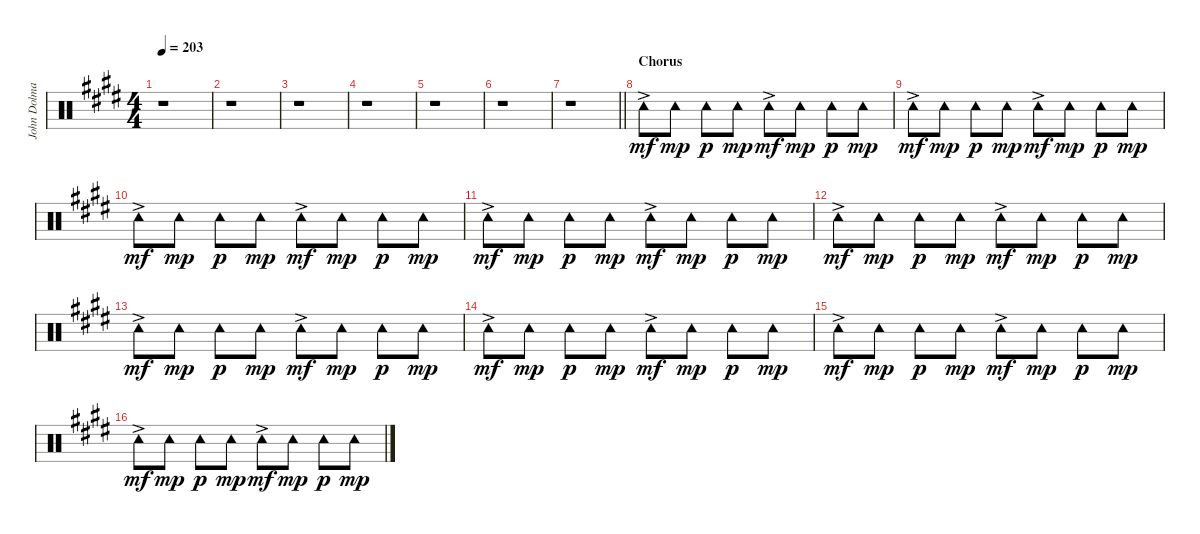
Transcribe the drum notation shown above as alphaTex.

\track ("John Dolmayan [Tambourine]" "John Dolma") {instrument percussion}
\staff {score}
\articulation defaults
\ts (4 4)
\tempo 203
\clef neutral
\ks c#minor
r.1{dy mf} |
r.1 |
r.1 |
r.1 |
r.1 |
r.1 |
\barLineRight lightlight
r.1 |
\section ("" "Chorus")
"Tambourine (hit)"{ac}.8 "Tambourine (hit)".8{dy mp} "Tambourine (hit)".8{dy p} "Tambourine (hit)".8{dy mp} "Tambourine (hit)"{ac}.8{dy mf} "Tambourine (hit)".8{dy mp} "Tambourine (hit)".8{dy p} "Tambourine (hit)".8{dy mp} |
"Tambourine (hit)"{ac}.8{dy mf} "Tambourine (hit)".8{dy mp} "Tambourine (hit)".8{dy p} "Tambourine (hit)".8{dy mp} "Tambourine (hit)"{ac}.8{dy mf} "Tambourine (hit)".8{dy mp} "Tambourine (hit)".8{dy p} "Tambourine (hit)".8{dy mp} |
"Tambourine (hit)"{ac}.8{dy mf} "Tambourine (hit)".8{dy mp} "Tambourine (hit)".8{dy p} "Tambourine (hit)".8{dy mp} "Tambourine (hit)"{ac}.8{dy mf} "Tambourine (hit)".8{dy mp} "Tambourine (hit)".8{dy p} "Tambourine (hit)".8{dy mp} |
"Tambourine (hit)"{ac}.8{dy mf} "Tambourine (hit)".8{dy mp} "Tambourine (hit)".8{dy p} "Tambourine (hit)".8{dy mp} "Tambourine (hit)"{ac}.8{dy mf} "Tambourine (hit)".8{dy mp} "Tambourine (hit)".8{dy p} "Tambourine (hit)".8{dy mp} |
"Tambourine (hit)"{ac}.8{dy mf} "Tambourine (hit)".8{dy mp} "Tambourine (hit)".8{dy p} "Tambourine (hit)".8{dy mp} "Tambourine (hit)"{ac}.8{dy mf} "Tambourine (hit)".8{dy mp} "Tambourine (hit)".8{dy p} "Tambourine (hit)".8{dy mp} |
"Tambourine (hit)"{ac}.8{dy mf} "Tambourine (hit)".8{dy mp} "Tambourine (hit)".8{dy p} "Tambourine (hit)".8{dy mp} "Tambourine (hit)"{ac}.8{dy mf} "Tambourine (hit)".8{dy mp} "Tambourine (hit)".8{dy p} "Tambourine (hit)".8{dy mp} |
"Tambourine (hit)"{ac}.8{dy mf} "Tambourine (hit)".8{dy mp} "Tambourine (hit)".8{dy p} "Tambourine (hit)".8{dy mp} "Tambourine (hit)"{ac}.8{dy mf} "Tambourine (hit)".8{dy mp} "Tambourine (hit)".8{dy p} "Tambourine (hit)".8{dy mp} |
"Tambourine (hit)"{ac}.8{dy mf} "Tambourine (hit)".8{dy mp} "Tambourine (hit)".8{dy p} "Tambourine (hit)".8{dy mp} "Tambourine (hit)"{ac}.8{dy mf} "Tambourine (hit)".8{dy mp} "Tambourine (hit)".8{dy p} "Tambourine (hit)".8{dy mp} |
"Tambourine (hit)"{ac}.8{dy mf} "Tambourine (hit)".8{dy mp} "Tambourine (hit)".8{dy p} "Tambourine (hit)".8{dy mp} "Tambourine (hit)"{ac}.8{dy mf} "Tambourine (hit)".8{dy mp} "Tambourine (hit)".8{dy p} "Tambourine (hit)".8{dy mp}
